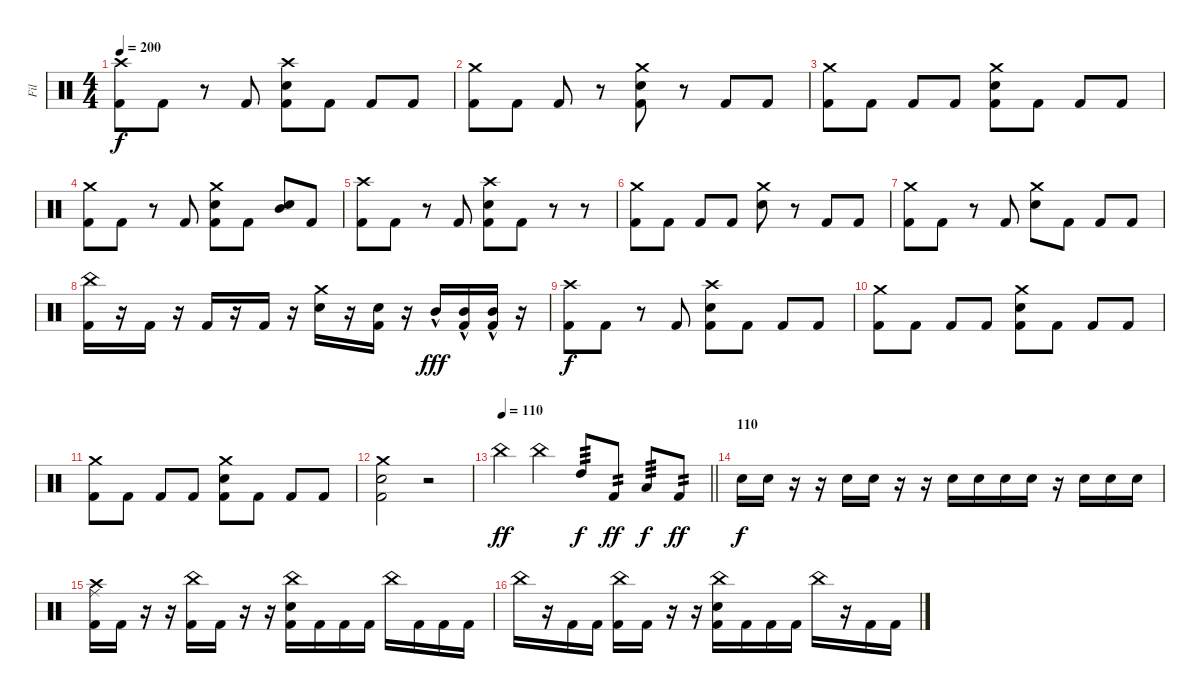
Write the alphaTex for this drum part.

\track ("Fil" "Fil") {instrument percussion}
\staff {score}
\articulation defaults
\ts (4 4)
\tempo 200
\clef neutral
\ks c
("Crash high (hit)" "Kick (hit) 2").8{dy f} "Kick (hit) 2".8 r.8 "Kick (hit) 2".8 ("Crash high (hit)" "Electric Snare (hit)" "Kick (hit) 2").8 "Kick (hit) 2".8 "Kick (hit) 2".8 "Kick (hit) 2".8 |
("Crash medium (hit)" "Kick (hit) 2").8 "Kick (hit) 2".8 "Kick (hit) 2".8 r.8 ("Crash medium (hit)" "Electric Snare (hit)" "Kick (hit) 2").8 r.8 "Kick (hit) 2".8 "Kick (hit) 2".8 |
("Crash medium (hit)" "Kick (hit) 2").8 "Kick (hit) 2".8 "Kick (hit) 2".8 "Kick (hit) 2".8 ("Crash medium (hit)" "Electric Snare (hit)" "Kick (hit) 2").8 "Kick (hit) 2".8 "Kick (hit) 2".8 "Kick (hit) 2".8 |
("Crash medium (hit)" "Kick (hit) 2").8 "Kick (hit) 2".8 r.8 "Kick (hit) 2".8 ("Crash medium (hit)" "Electric Snare (hit)" "Kick (hit) 2").8 "Kick (hit) 2".8 ("Mid Tom (hit)" "Electric Snare (hit)").8 "Kick (hit) 2".8 |
("Crash high (hit)" "Kick (hit) 2").8 "Kick (hit) 2".8 r.8 "Kick (hit) 2".8 ("Crash high (hit)" "Electric Snare (hit)" "Kick (hit) 2").8 "Kick (hit) 2".8 r.8 r.8 |
("Crash medium (hit)" "Kick (hit) 2").8 "Kick (hit) 2".8 "Kick (hit) 2".8 "Kick (hit) 2".8 ("Crash medium (hit)" "Electric Snare (hit)").8 r.8 "Kick (hit) 2".8 "Kick (hit) 2".8 |
("Crash medium (hit)" "Kick (hit) 2").8 "Kick (hit) 2".8 r.8 "Kick (hit) 2".8 ("Crash medium (hit)" "Electric Snare (hit)").8 "Kick (hit) 2".8 "Kick (hit) 2".8 "Kick (hit) 2".8 |
("China (hit)" "Kick (hit) 2").16 r.16 "Kick (hit) 2".16 r.16 "Kick (hit) 2".16 r.16 "Kick (hit) 2".16 r.16 ("Crash medium (hit)" "Electric Snare (hit)").16 r.16 ("Electric Snare (hit)" "Kick (hit) 2").16 r.16 "Mid Tom (hit)"{hac}.16{dy fff} ("Mid Tom (hit)"{hac} "Kick (hit) 2").16 ("Mid Tom (hit)"{hac} "Kick (hit) 2").16 r.16 |
("Crash high (hit)" "Kick (hit) 2").8{dy f} "Kick (hit) 2".8 r.8 "Kick (hit) 2".8 ("Crash high (hit)" "Electric Snare (hit)" "Kick (hit) 2").8 "Kick (hit) 2".8 "Kick (hit) 2".8 "Kick (hit) 2".8 |
("Crash medium (hit)" "Kick (hit) 2").8 "Kick (hit) 2".8 "Kick (hit) 2".8 "Kick (hit) 2".8 ("Crash medium (hit)" "Electric Snare (hit)" "Kick (hit) 2").8 "Kick (hit) 2".8 "Kick (hit) 2".8 "Kick (hit) 2".8 |
("Crash medium (hit)" "Kick (hit) 2").8 "Kick (hit) 2".8 "Kick (hit) 2".8 "Kick (hit) 2".8 ("Crash medium (hit)" "Electric Snare (hit)" "Kick (hit) 2").8 "Kick (hit) 2".8 "Kick (hit) 2".8 "Kick (hit) 2".8 |
("Crash medium (hit)" "Electric Snare (hit)" "Kick (hit) 2").2 r.2 |
\tempo 110
\barLineRight lightlight "China (hit)".4{dy ff} "China (hit)".4 "High Tom (hit)".8{tp 3 dy f} "Kick (hit) 2".8{tp 2 dy ff} "Low Tom (hit)".8{tp 3 dy f} "Kick (hit) 2".8{tp 2 dy ff}
|
\section ("" "110")
"Electric Snare (hit)".16{dy f} "Electric Snare (hit)".16 r.16 r.16 "Electric Snare (hit)".16 "Electric Snare (hit)".16 r.16 r.16 "Electric Snare (hit)".16 "Electric Snare (hit)".16 "Electric Snare (hit)".16 "Electric Snare (hit)".16 r.16 "Electric Snare (hit)".16 "Electric Snare (hit)".16 "Electric Snare (hit)".16 |
("Ride (middle)" "Crash high (hit)" "Kick (hit) 2").16 "Kick (hit) 2".16 r.16 r.16 ("China (hit)" "Kick (hit) 2").16 "Kick (hit) 2".16 r.16 r.16 ("China (hit)" "Electric Snare (hit)" "Kick (hit) 2").16 "Kick (hit) 2".16 "Kick (hit) 2".16 "Kick (hit) 2".16 "China (hit)".16 "Kick (hit) 2".16 "Kick (hit) 2".16 "Kick (hit) 2".16 |
"China (hit)".16 r.16 "Kick (hit) 2".16 "Kick (hit) 2".16 ("China (hit)" "Kick (hit) 2").16 "Kick (hit) 2".16 r.16 r.16 ("China (hit)" "Electric Snare (hit)" "Kick (hit) 2").16 "Kick (hit) 2".16 "Kick (hit) 2".16 "Kick (hit) 2".16 "China (hit)".16 r.16 "Kick (hit) 2".16 "Kick (hit) 2".16
